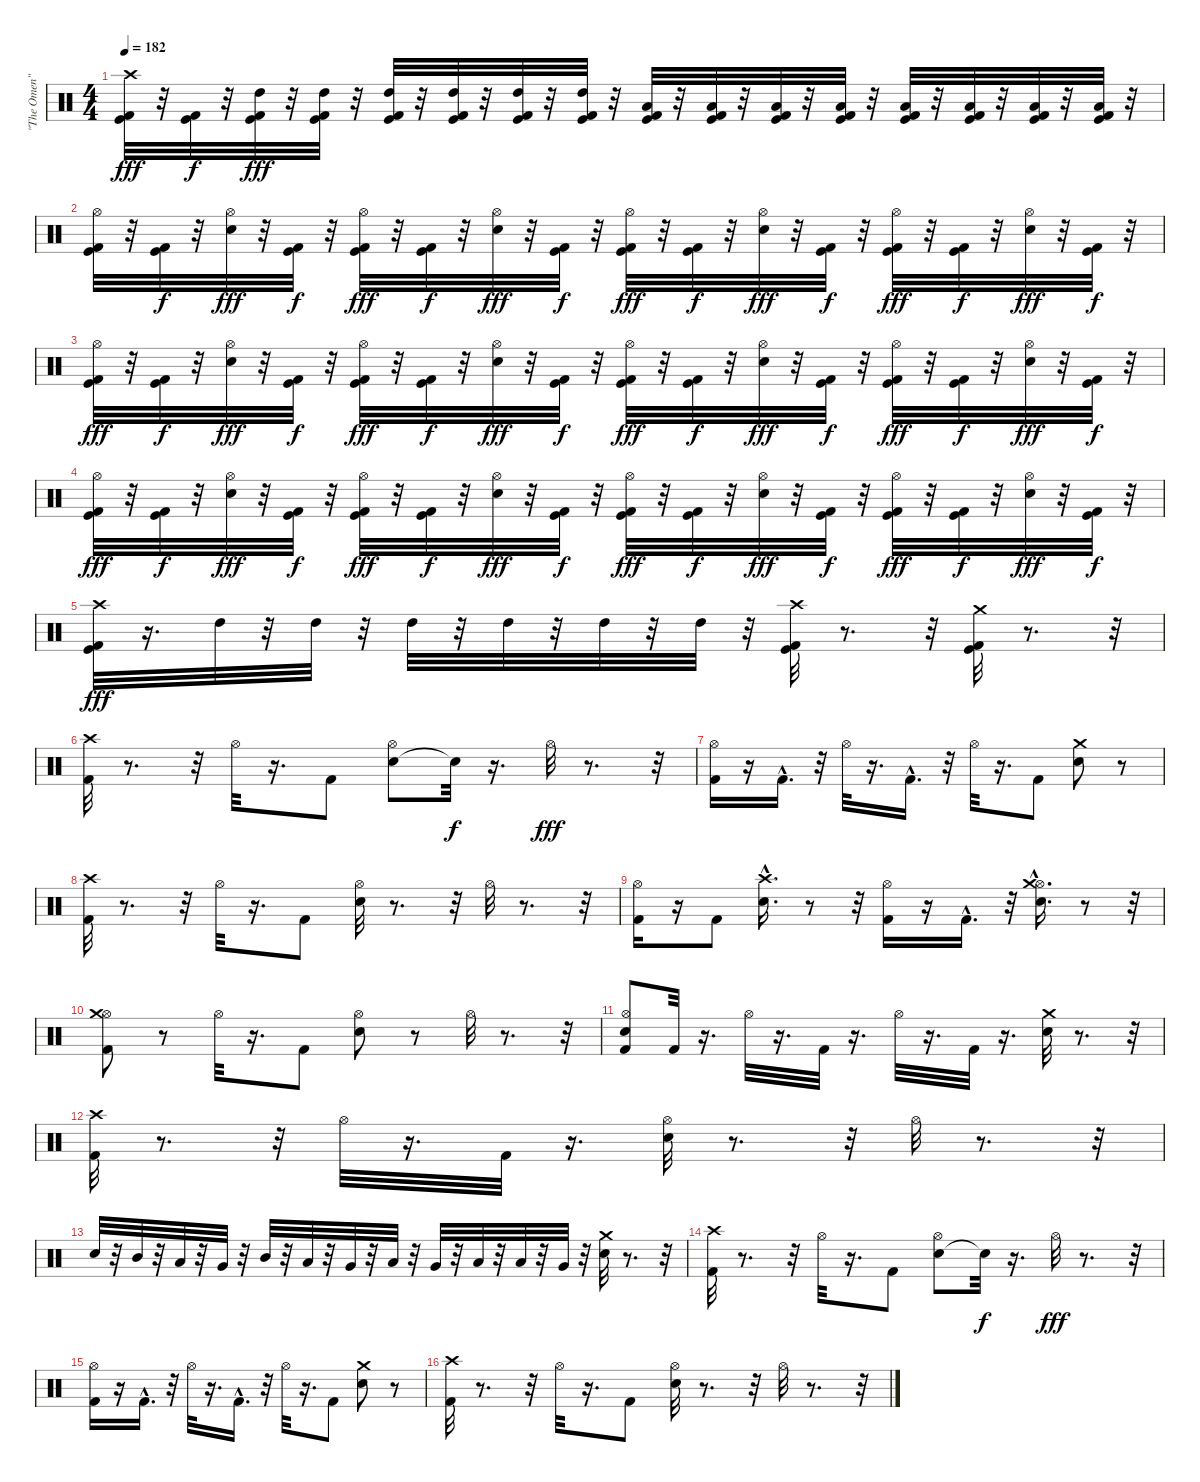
\track ("\"The Omen\"" "\"The Omen\"") {instrument percussion}
\staff {score}
\articulation defaults
\ts (4 4)
\tempo 182
\clef neutral
\ks c
("Kick (hit)" "Kick (hit) 2" "Crash high (hit)").32{dy fff} r.32 ("Kick (hit)" "Kick (hit) 2").32{dy f} r.32 ("Kick (hit)" "Kick (hit) 2" "High Tom (hit)").32{dy fff} r.32 ("Kick (hit)" "Kick (hit) 2" "High Tom (hit)").32 r.32 ("Kick (hit)" "Kick (hit) 2" "High Tom (hit)").32 r.32 ("Kick (hit)" "Kick (hit) 2" "High Tom (hit)").32 r.32 ("Kick (hit)" "Kick (hit) 2" "High Tom (hit)").32 r.32 ("Kick (hit)" "Kick (hit) 2" "High Tom (hit)").32 r.32 ("Kick (hit)" "Kick (hit) 2" "Low Tom (hit)").32 r.32 ("Kick (hit)" "Kick (hit) 2" "Low Tom (hit)").32 r.32 ("Kick (hit)" "Kick (hit) 2" "Low Tom (hit)").32 r.32 ("Kick (hit)" "Kick (hit) 2" "Low Tom (hit)").32 r.32 ("Kick (hit)" "Kick (hit) 2" "Low Floor Tom (hit)").32 r.32 ("Kick (hit)" "Kick (hit) 2" "Low Floor Tom (hit)").32 r.32 ("Kick (hit)" "Kick (hit) 2" "Low Floor Tom (hit)").32 r.32 ("Kick (hit)" "Kick (hit) 2" "Low Floor Tom (hit)").32 r.32 |
("Kick (hit)" "Kick (hit) 2" "Hi-Hat (open)").32 r.32 ("Kick (hit)" "Kick (hit) 2").32{dy f} r.32 ("Snare (hit) 2" "Hi-Hat (open)").32{dy fff} r.32 ("Kick (hit)" "Kick (hit) 2").32{dy f} r.32 ("Kick (hit)" "Kick (hit) 2" "Hi-Hat (open)").32{dy fff} r.32 ("Kick (hit)" "Kick (hit) 2").32{dy f} r.32 ("Snare (hit) 2" "Hi-Hat (open)").32{dy fff} r.32 ("Kick (hit)" "Kick (hit) 2").32{dy f} r.32 ("Kick (hit)" "Kick (hit) 2" "Hi-Hat (open)").32{dy fff} r.32 ("Kick (hit)" "Kick (hit) 2").32{dy f} r.32 ("Snare (hit) 2" "Hi-Hat (open)").32{dy fff} r.32 ("Kick (hit)" "Kick (hit) 2").32{dy f} r.32 ("Kick (hit)" "Kick (hit) 2" "Hi-Hat (open)").32{dy fff} r.32 ("Kick (hit)" "Kick (hit) 2").32{dy f} r.32 ("Snare (hit) 2" "Hi-Hat (open)").32{dy fff} r.32 ("Kick (hit)" "Kick (hit) 2").32{dy f} r.32 |
("Kick (hit)" "Kick (hit) 2" "Hi-Hat (open)").32{dy fff} r.32 ("Kick (hit)" "Kick (hit) 2").32{dy f} r.32 ("Snare (hit) 2" "Hi-Hat (open)").32{dy fff} r.32 ("Kick (hit)" "Kick (hit) 2").32{dy f} r.32 ("Kick (hit)" "Kick (hit) 2" "Hi-Hat (open)").32{dy fff} r.32 ("Kick (hit)" "Kick (hit) 2").32{dy f} r.32 ("Snare (hit) 2" "Hi-Hat (open)").32{dy fff} r.32 ("Kick (hit)" "Kick (hit) 2").32{dy f} r.32 ("Kick (hit)" "Kick (hit) 2" "Hi-Hat (open)").32{dy fff} r.32 ("Kick (hit)" "Kick (hit) 2").32{dy f} r.32 ("Snare (hit) 2" "Hi-Hat (open)").32{dy fff} r.32 ("Kick (hit)" "Kick (hit) 2").32{dy f} r.32 ("Kick (hit)" "Kick (hit) 2" "Hi-Hat (open)").32{dy fff} r.32 ("Kick (hit)" "Kick (hit) 2").32{dy f} r.32 ("Snare (hit) 2" "Hi-Hat (open)").32{dy fff} r.32 ("Kick (hit)" "Kick (hit) 2").32{dy f} r.32 |
("Kick (hit)" "Kick (hit) 2" "Hi-Hat (open)").32{dy fff} r.32 ("Kick (hit)" "Kick (hit) 2").32{dy f} r.32 ("Snare (hit) 2" "Hi-Hat (open)").32{dy fff} r.32 ("Kick (hit)" "Kick (hit) 2").32{dy f} r.32 ("Kick (hit)" "Kick (hit) 2" "Hi-Hat (open)").32{dy fff} r.32 ("Kick (hit)" "Kick (hit) 2").32{dy f} r.32 ("Snare (hit) 2" "Hi-Hat (open)").32{dy fff} r.32 ("Kick (hit)" "Kick (hit) 2").32{dy f} r.32 ("Kick (hit)" "Kick (hit) 2" "Hi-Hat (open)").32{dy fff} r.32 ("Kick (hit)" "Kick (hit) 2").32{dy f} r.32 ("Snare (hit) 2" "Hi-Hat (open)").32{dy fff} r.32 ("Kick (hit)" "Kick (hit) 2").32{dy f} r.32 ("Kick (hit)" "Kick (hit) 2" "Hi-Hat (open)").32{dy fff} r.32 ("Kick (hit)" "Kick (hit) 2").32{dy f} r.32 ("Snare (hit) 2" "Hi-Hat (open)").32{dy fff} r.32 ("Kick (hit)" "Kick (hit) 2").32{dy f} r.32 |
("Kick (hit)" "Kick (hit) 2" "Crash high (hit)").32{dy fff} r.16{d} "High Tom (hit)".32 r.32 "High Tom (hit)".32 r.32 "High Tom (hit)".32 r.32 "High Tom (hit)".32 r.32 "High Tom (hit)".32 r.32 "High Tom (hit)".32 r.32 ("Kick (hit)" "Kick (hit) 2" "Crash high (hit)").32 r.8{d} r.32 ("Kick (hit)" "Kick (hit) 2" "Crash medium (hit)").32 r.8{d} r.32 |
("Kick (hit) 2" "Crash high (hit)").32 r.8{d} r.32 "Hi-Hat (open)".32 r.16{d} "Kick (hit) 2".8 ("Snare (hit) 2" "Hi-Hat (open)").8 "Snare (hit)"{t}.32{dy f} r.16{d} "Hi-Hat (open)".32{dy fff} r.8{d} r.32 |
("Kick (hit) 2" "Hi-Hat (open)").16 r.16 "Kick (hit) 2"{hac}.16{d} r.32 "Hi-Hat (open)".32 r.16{d} "Kick (hit) 2"{hac}.16{d} r.32 "Hi-Hat (open)".32 r.16{d} "Kick (hit) 2".8 ("Snare (hit) 2" "Crash medium (hit)").8 r.8 |
("Kick (hit) 2" "Crash high (hit)").32 r.8{d} r.32 "Hi-Hat (open)".32 r.16{d} "Kick (hit) 2".8 ("Snare (hit) 2" "Hi-Hat (open)").32 r.8{d} r.32 "Hi-Hat (open)".32 r.8{d} r.32 |
("Kick (hit) 2" "Hi-Hat (open)").16 r.16 "Kick (hit) 2".8 ("Snare (hit) 2"{hac} "Crash high (hit)").16{d} r.8 r.32 ("Kick (hit) 2" "Hi-Hat (open)").16 r.16 "Kick (hit) 2"{hac}.16{d} r.32 ("Snare (hit) 2"{hac} "Hi-Hat (open)" "Crash medium (hit)").16{d} r.8 r.32 |
("Kick (hit) 2" "Hi-Hat (open)" "Crash medium (hit)").8 r.8 "Hi-Hat (open)".32 r.16{d} "Kick (hit) 2".8 ("Snare (hit) 2" "Hi-Hat (open)").8 r.8 "Hi-Hat (open)".32 r.8{d} r.32 |
("Snare (hit)" "Kick (hit) 2" "Hi-Hat (open)").8 "Kick (hit) 2".32 r.16{d} "Hi-Hat (open)".32 r.16{d} "Kick (hit) 2".32 r.16{d} "Hi-Hat (open)".32 r.16{d} "Kick (hit) 2".32 r.16{d} ("Snare (hit) 2" "Crash medium (hit)").32 r.8{d} r.32 |
("Kick (hit) 2" "Crash high (hit)").32 r.8{d} r.32 "Hi-Hat (open)".32 r.16{d} "Kick (hit) 2".32 r.16{d} ("Snare (hit) 2" "Hi-Hat (open)").32 r.8{d} r.32 "Hi-Hat (open)".32 r.8{d} r.32 |
"Snare (hit) 2".32 r.32 "Mid Tom (hit)".32 r.32 "Low Tom (hit)".32 r.32 "Very Low Tom (hit)".32 r.32 "Mid Tom (hit)".32 r.32 "Low Tom (hit)".32 r.32 "Very Low Tom (hit)".32 r.32 "Low Tom (hit)".32 r.32 "Very Low Tom (hit)".32 r.32 "Low Floor Tom (hit)".32 r.32 "Low Tom (hit)".32 r.32 "Very Low Tom (hit)".32 r.32 ("Snare (hit) 2" "Crash medium (hit)").32 r.8{d} r.32 |
("Kick (hit) 2" "Crash high (hit)").32 r.8{d} r.32 "Hi-Hat (open)".32 r.16{d} "Kick (hit) 2".8 ("Snare (hit) 2" "Hi-Hat (open)").8 "Snare (hit)"{t}.32{dy f} r.16{d} "Hi-Hat (open)".32{dy fff} r.8{d} r.32 |
("Kick (hit) 2" "Hi-Hat (open)").16 r.16 "Kick (hit) 2"{hac}.16{d} r.32 "Hi-Hat (open)".32 r.16{d} "Kick (hit) 2"{hac}.16{d} r.32 "Hi-Hat (open)".32 r.16{d} "Kick (hit) 2".8 ("Snare (hit) 2" "Crash medium (hit)").8 r.8 |
("Kick (hit) 2" "Crash high (hit)").32 r.8{d} r.32 "Hi-Hat (open)".32 r.16{d} "Kick (hit) 2".8 ("Snare (hit) 2" "Hi-Hat (open)").32 r.8{d} r.32 "Hi-Hat (open)".32 r.8{d} r.32
